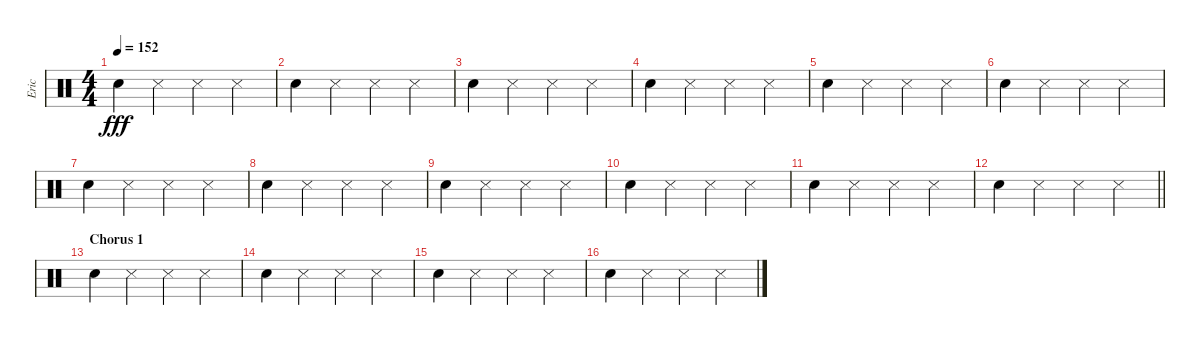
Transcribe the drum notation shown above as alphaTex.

\track ("Eric" "Eric") {instrument percussion}
\staff {score}
\articulation defaults
\ts (4 4)
\tempo 152
\clef neutral
\ks c "Metronome (bell)".4{dy fff} "Metronome (hit)".4 "Metronome (hit)".4 "Metronome (hit)".4
|
"Metronome (bell)".4 "Metronome (hit)".4 "Metronome (hit)".4 "Metronome (hit)".4 |
"Metronome (bell)".4 "Metronome (hit)".4 "Metronome (hit)".4 "Metronome (hit)".4 |
"Metronome (bell)".4 "Metronome (hit)".4 "Metronome (hit)".4 "Metronome (hit)".4 |
"Metronome (bell)".4 "Metronome (hit)".4 "Metronome (hit)".4 "Metronome (hit)".4 |
"Metronome (bell)".4 "Metronome (hit)".4 "Metronome (hit)".4 "Metronome (hit)".4 |
"Metronome (bell)".4 "Metronome (hit)".4 "Metronome (hit)".4 "Metronome (hit)".4 |
"Metronome (bell)".4 "Metronome (hit)".4 "Metronome (hit)".4 "Metronome (hit)".4 |
"Metronome (bell)".4 "Metronome (hit)".4 "Metronome (hit)".4 "Metronome (hit)".4 |
"Metronome (bell)".4 "Metronome (hit)".4 "Metronome (hit)".4 "Metronome (hit)".4 |
"Metronome (bell)".4 "Metronome (hit)".4 "Metronome (hit)".4 "Metronome (hit)".4 |
\barLineRight lightlight "Metronome (bell)".4 "Metronome (hit)".4 "Metronome (hit)".4 "Metronome (hit)".4
|
\section ("" "Chorus 1")
"Metronome (bell)".4 "Metronome (hit)".4 "Metronome (hit)".4 "Metronome (hit)".4 |
"Metronome (bell)".4 "Metronome (hit)".4 "Metronome (hit)".4 "Metronome (hit)".4 |
"Metronome (bell)".4 "Metronome (hit)".4 "Metronome (hit)".4 "Metronome (hit)".4 |
"Metronome (bell)".4 "Metronome (hit)".4 "Metronome (hit)".4 "Metronome (hit)".4
